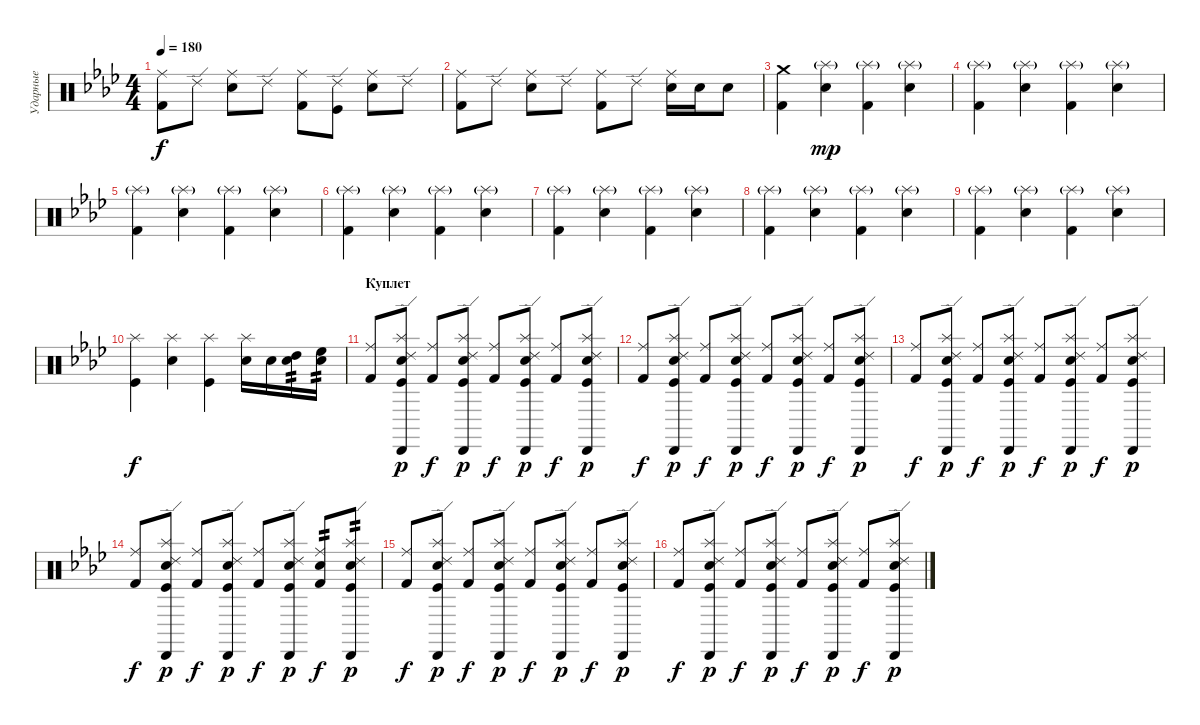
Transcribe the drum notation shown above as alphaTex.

\track ("Ударные" "Ударные") {instrument percussion}
\staff {score}
\articulation defaults
\ts (4 4)
\tempo 180
\clef neutral
\ks ab
("Ride (middle)" "Kick (hit) 2").8{dy f} "Ride (edge) 2".8 ("Ride (middle)" "Electric Snare (hit)").8 "Ride (edge) 2".8 ("Ride (middle)" "Kick (hit) 2").8 ("Ride (edge) 2" "Kick (hit)").8 ("Ride (middle)" "Electric Snare (hit)").8 "Ride (edge) 2".8 |
("Ride (middle)" "Kick (hit) 2").8 "Ride (edge) 2".8 ("Ride (middle)" "Electric Snare (hit)").8 "Ride (edge) 2".8 ("Ride (middle)" "Kick (hit) 2").8 "Ride (edge) 2".8 ("Ride (middle)" "Electric Snare (hit)").16 "Electric Snare (hit)".16 "Electric Snare (hit)".8 |
("Kick (hit) 2" "Crash medium (hit)").4 ("Electric Snare (hit)" "Splash (hit)"{g}).4{dy mp} ("Kick (hit) 2" "Splash (hit)"{g}).4 ("Electric Snare (hit)" "Splash (hit)"{g}).4 |
("Kick (hit) 2" "Splash (hit)"{g}).4 ("Electric Snare (hit)" "Splash (hit)"{g}).4 ("Kick (hit) 2" "Splash (hit)"{g}).4 ("Electric Snare (hit)" "Splash (hit)"{g}).4 |
("Kick (hit) 2" "Splash (hit)"{g}).4 ("Electric Snare (hit)" "Splash (hit)"{g}).4 ("Kick (hit) 2" "Splash (hit)"{g}).4 ("Electric Snare (hit)" "Splash (hit)"{g}).4 |
("Kick (hit) 2" "Splash (hit)"{g}).4 ("Electric Snare (hit)" "Splash (hit)"{g}).4 ("Kick (hit) 2" "Splash (hit)"{g}).4 ("Electric Snare (hit)" "Splash (hit)"{g}).4 |
("Kick (hit) 2" "Splash (hit)"{g}).4 ("Electric Snare (hit)" "Splash (hit)"{g}).4 ("Kick (hit) 2" "Splash (hit)"{g}).4 ("Electric Snare (hit)" "Splash (hit)"{g}).4 |
("Kick (hit) 2" "Splash (hit)"{g}).4 ("Electric Snare (hit)" "Splash (hit)"{g}).4 ("Kick (hit) 2" "Splash (hit)"{g}).4 ("Electric Snare (hit)" "Splash (hit)"{g}).4 |
("Kick (hit) 2" "Splash (hit)"{g}).4 ("Electric Snare (hit)" "Splash (hit)"{g}).4 ("Kick (hit) 2" "Splash (hit)"{g}).4 ("Electric Snare (hit)" "Splash (hit)"{g}).4 |
("Kick (hit)" "Splash (hit)").4{dy f} ("Electric Snare (hit)" "Splash (hit)").4 ("Kick (hit)" "Splash (hit)").4 ("Electric Snare (hit)" "Splash (hit)").16 "Electric Snare (hit)".16 ("Electric Snare (hit)" "High Tom (hit)").16{tp 2} ("Electric Snare (hit)" "High Floor Tom (hit)").16{tp 2} |
\section ("" "Куплет")
("Ride (middle)" "Kick (hit) 2").8 ("Ride (edge) 2" "Cabasa (hit)" "Electric Snare (hit)" "Kick (hit)" "Splash (hit)").8{dy p} ("Ride (middle)" "Kick (hit) 2").8{dy f} ("Ride (edge) 2" "Cabasa (hit)" "Electric Snare (hit)" "Kick (hit)" "Splash (hit)").8{dy p} ("Ride (middle)" "Kick (hit) 2").8{dy f} ("Ride (edge) 2" "Cabasa (hit)" "Electric Snare (hit)" "Kick (hit)" "Splash (hit)").8{dy p} ("Ride (middle)" "Kick (hit) 2").8{dy f} ("Ride (edge) 2" "Cabasa (hit)" "Electric Snare (hit)" "Kick (hit)" "Splash (hit)").8{dy p} |
("Ride (middle)" "Kick (hit) 2").8{dy f} ("Ride (edge) 2" "Cabasa (hit)" "Electric Snare (hit)" "Kick (hit)" "Splash (hit)").8{dy p} ("Ride (middle)" "Kick (hit) 2").8{dy f} ("Ride (edge) 2" "Cabasa (hit)" "Electric Snare (hit)" "Kick (hit)" "Splash (hit)").8{dy p} ("Ride (middle)" "Kick (hit) 2").8{dy f} ("Ride (edge) 2" "Cabasa (hit)" "Electric Snare (hit)" "Kick (hit)" "Splash (hit)").8{dy p} ("Ride (middle)" "Kick (hit) 2").8{dy f} ("Ride (edge) 2" "Cabasa (hit)" "Electric Snare (hit)" "Kick (hit)" "Splash (hit)").8{dy p} |
("Ride (middle)" "Kick (hit) 2").8{dy f} ("Ride (edge) 2" "Cabasa (hit)" "Electric Snare (hit)" "Kick (hit)" "Splash (hit)").8{dy p} ("Ride (middle)" "Kick (hit) 2").8{dy f} ("Ride (edge) 2" "Cabasa (hit)" "Electric Snare (hit)" "Kick (hit)" "Splash (hit)").8{dy p} ("Ride (middle)" "Kick (hit) 2").8{dy f} ("Ride (edge) 2" "Cabasa (hit)" "Electric Snare (hit)" "Kick (hit)" "Splash (hit)").8{dy p} ("Ride (middle)" "Kick (hit) 2").8{dy f} ("Ride (edge) 2" "Cabasa (hit)" "Electric Snare (hit)" "Kick (hit)" "Splash (hit)").8{dy p} |
("Ride (middle)" "Kick (hit) 2").8{dy f} ("Ride (edge) 2" "Cabasa (hit)" "Electric Snare (hit)" "Kick (hit)" "Splash (hit)").8{dy p} ("Ride (middle)" "Kick (hit) 2").8{dy f} ("Ride (edge) 2" "Cabasa (hit)" "Electric Snare (hit)" "Kick (hit)" "Splash (hit)").8{dy p} ("Ride (middle)" "Kick (hit) 2").8{dy f} ("Ride (edge) 2" "Cabasa (hit)" "Electric Snare (hit)" "Kick (hit)" "Splash (hit)").8{dy p} ("Ride (middle)" "Kick (hit) 2" "Electric Snare (hit)").8{tp 2 dy f} ("Ride (edge) 2" "Cabasa (hit)" "Electric Snare (hit)" "Kick (hit)" "Splash (hit)").8{tp 2 dy p} |
("Ride (middle)" "Kick (hit) 2").8{dy f} ("Ride (edge) 2" "Cabasa (hit)" "Electric Snare (hit)" "Kick (hit)" "Splash (hit)").8{dy p} ("Ride (middle)" "Kick (hit) 2").8{dy f} ("Ride (edge) 2" "Cabasa (hit)" "Electric Snare (hit)" "Kick (hit)" "Splash (hit)").8{dy p} ("Ride (middle)" "Kick (hit) 2").8{dy f} ("Ride (edge) 2" "Cabasa (hit)" "Electric Snare (hit)" "Kick (hit)" "Splash (hit)").8{dy p} ("Ride (middle)" "Kick (hit) 2").8{dy f} ("Ride (edge) 2" "Cabasa (hit)" "Electric Snare (hit)" "Kick (hit)" "Splash (hit)").8{dy p} |
("Ride (middle)" "Kick (hit) 2").8{dy f} ("Ride (edge) 2" "Cabasa (hit)" "Electric Snare (hit)" "Kick (hit)" "Splash (hit)").8{dy p} ("Ride (middle)" "Kick (hit) 2").8{dy f} ("Ride (edge) 2" "Cabasa (hit)" "Electric Snare (hit)" "Kick (hit)" "Splash (hit)").8{dy p} ("Ride (middle)" "Kick (hit) 2").8{dy f} ("Ride (edge) 2" "Cabasa (hit)" "Electric Snare (hit)" "Kick (hit)" "Splash (hit)").8{dy p} ("Ride (middle)" "Kick (hit) 2").8{dy f} ("Ride (edge) 2" "Cabasa (hit)" "Electric Snare (hit)" "Kick (hit)" "Splash (hit)").8{dy p}
